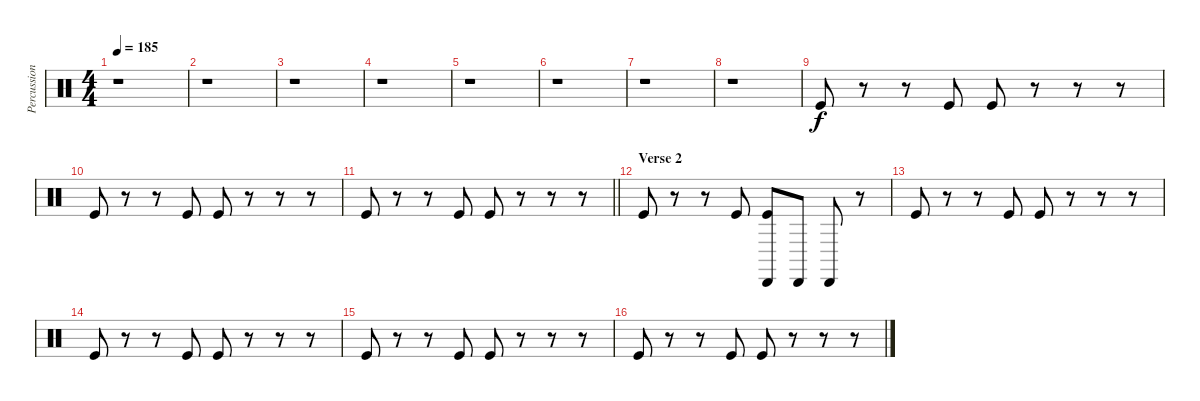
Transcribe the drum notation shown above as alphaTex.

\track ("Percussion" "Percussion") {instrument percussion}
\staff {score}
\articulation defaults
\ts (4 4)
\tempo 185
\clef neutral
\ks c
r.1{dy f} |
r.1 |
r.1 |
r.1 |
r.1 |
r.1 |
r.1 |
r.1 |
"Kick (hit)".8 r.8 r.8 "Kick (hit)".8 "Kick (hit)".8 r.8 r.8 r.8 |
"Kick (hit)".8 r.8 r.8 "Kick (hit)".8 "Kick (hit)".8 r.8 r.8 r.8 |
\barLineRight lightlight "Kick (hit)".8
r.8 r.8 "Kick (hit)".8 "Kick (hit)".8 r.8 r.8 r.8 |
\section ("" "Verse 2")
"Kick (hit)".8 r.8 r.8 "Kick (hit)".8 ("Cabasa (hit)" "Kick (hit)").8 "Cabasa (hit)".8 "Cabasa (hit)".8 r.8 |
"Kick (hit)".8 r.8 r.8 "Kick (hit)".8 "Kick (hit)".8 r.8 r.8 r.8 |
"Kick (hit)".8 r.8 r.8 "Kick (hit)".8 "Kick (hit)".8 r.8 r.8 r.8 |
"Kick (hit)".8 r.8 r.8 "Kick (hit)".8 "Kick (hit)".8 r.8 r.8 r.8 |
"Kick (hit)".8 r.8 r.8 "Kick (hit)".8 "Kick (hit)".8 r.8 r.8 r.8
